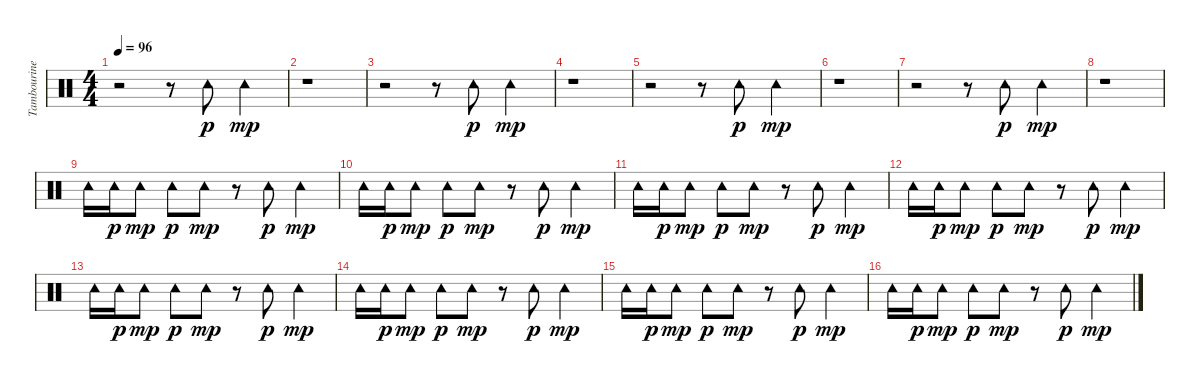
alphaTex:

\track ("Tambourine" "Tambourine") {instrument percussion}
\staff {score}
\articulation defaults
\ts (4 4)
\tempo 96
\clef neutral
\ks c
r.2{dy mp} r.8 "Tambourine (hit)".8{dy p} "Tambourine (hit)".4{dy mp} |
r.1 |
r.2 r.8 "Tambourine (hit)".8{dy p} "Tambourine (hit)".4{dy mp} |
r.1 |
r.2 r.8 "Tambourine (hit)".8{dy p} "Tambourine (hit)".4{dy mp} |
r.1 |
r.2 r.8 "Tambourine (hit)".8{dy p} "Tambourine (hit)".4{dy mp} |
r.1 |
"Tambourine (hit)".16 "Tambourine (hit)".16{dy p} "Tambourine (hit)".8{dy mp} "Tambourine (hit)".8{dy p} "Tambourine (hit)".8{dy mp} r.8 "Tambourine (hit)".8{dy p} "Tambourine (hit)".4{dy mp} |
"Tambourine (hit)".16 "Tambourine (hit)".16{dy p} "Tambourine (hit)".8{dy mp} "Tambourine (hit)".8{dy p} "Tambourine (hit)".8{dy mp} r.8 "Tambourine (hit)".8{dy p} "Tambourine (hit)".4{dy mp} |
"Tambourine (hit)".16 "Tambourine (hit)".16{dy p} "Tambourine (hit)".8{dy mp} "Tambourine (hit)".8{dy p} "Tambourine (hit)".8{dy mp} r.8 "Tambourine (hit)".8{dy p} "Tambourine (hit)".4{dy mp} |
"Tambourine (hit)".16 "Tambourine (hit)".16{dy p} "Tambourine (hit)".8{dy mp} "Tambourine (hit)".8{dy p} "Tambourine (hit)".8{dy mp} r.8 "Tambourine (hit)".8{dy p} "Tambourine (hit)".4{dy mp} |
"Tambourine (hit)".16 "Tambourine (hit)".16{dy p} "Tambourine (hit)".8{dy mp} "Tambourine (hit)".8{dy p} "Tambourine (hit)".8{dy mp} r.8 "Tambourine (hit)".8{dy p} "Tambourine (hit)".4{dy mp} |
"Tambourine (hit)".16 "Tambourine (hit)".16{dy p} "Tambourine (hit)".8{dy mp} "Tambourine (hit)".8{dy p} "Tambourine (hit)".8{dy mp} r.8 "Tambourine (hit)".8{dy p} "Tambourine (hit)".4{dy mp} |
"Tambourine (hit)".16 "Tambourine (hit)".16{dy p} "Tambourine (hit)".8{dy mp} "Tambourine (hit)".8{dy p} "Tambourine (hit)".8{dy mp} r.8 "Tambourine (hit)".8{dy p} "Tambourine (hit)".4{dy mp} |
"Tambourine (hit)".16 "Tambourine (hit)".16{dy p} "Tambourine (hit)".8{dy mp} "Tambourine (hit)".8{dy p} "Tambourine (hit)".8{dy mp} r.8 "Tambourine (hit)".8{dy p} "Tambourine (hit)".4{dy mp}
